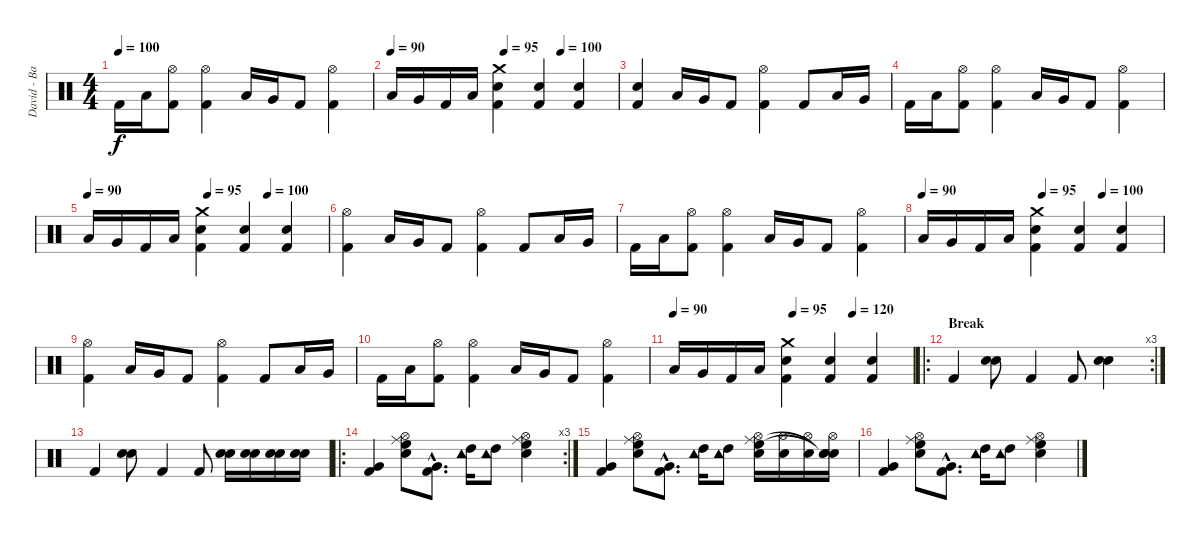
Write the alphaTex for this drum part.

\track ("David - Batterie" "David - Ba") {instrument percussion}
\staff {score}
\articulation defaults
\ts (4 4)
\tempo 100
\clef neutral
\ks c "Kick (hit) 2".16{dy f} "Low Tom (hit)".16
("Kick (hit) 2" "Hi-Hat (open)").8 ("Kick (hit) 2" "Hi-Hat (open)").4 "Low Tom (hit)".16 "Very Low Tom (hit)".16 "Kick (hit) 2".8 ("Kick (hit) 2" "Hi-Hat (open)").4 |
\tempo 90
\tempo (95 0.5)
\tempo (100 0.75)
"Low Tom (hit)".16 "Very Low Tom (hit)".16 "Kick (hit) 2".16 "Low Tom (hit)".16 ("Kick (hit) 2" "Snare (hit) 2" "Crash medium (hit)").4 ("Kick (hit) 2" "Snare (hit) 2").4 ("Kick (hit) 2" "Snare (hit) 2").4 |
("Kick (hit) 2" "Snare (hit) 2").4 "Low Tom (hit)".16 "Very Low Tom (hit)".16 "Kick (hit) 2".8 ("Kick (hit) 2" "Hi-Hat (open)").4 "Kick (hit) 2".8 "Low Tom (hit)".16 "Very Low Tom (hit)".16 |
"Kick (hit) 2".16 "Low Tom (hit)".16 ("Kick (hit) 2" "Hi-Hat (open)").8 ("Kick (hit) 2" "Hi-Hat (open)").4 "Low Tom (hit)".16 "Very Low Tom (hit)".16 "Kick (hit) 2".8 ("Kick (hit) 2" "Hi-Hat (open)").4 |
\tempo 90
\tempo (95 0.5)
\tempo (100 0.75)
"Low Tom (hit)".16 "Very Low Tom (hit)".16 "Kick (hit) 2".16 "Low Tom (hit)".16 ("Kick (hit) 2" "Snare (hit) 2" "Crash medium (hit)").4 ("Kick (hit) 2" "Snare (hit) 2").4 ("Kick (hit) 2" "Snare (hit) 2").4 |
("Kick (hit) 2" "Hi-Hat (open)").4 "Low Tom (hit)".16 "Very Low Tom (hit)".16 "Kick (hit) 2".8 ("Kick (hit) 2" "Hi-Hat (open)").4 "Kick (hit) 2".8 "Low Tom (hit)".16 "Very Low Tom (hit)".16 |
"Kick (hit) 2".16 "Low Tom (hit)".16 ("Kick (hit) 2" "Hi-Hat (open)").8 ("Kick (hit) 2" "Hi-Hat (open)").4 "Low Tom (hit)".16 "Very Low Tom (hit)".16 "Kick (hit) 2".8 ("Kick (hit) 2" "Hi-Hat (open)").4 |
\tempo 90
\tempo (95 0.5)
\tempo (100 0.75)
"Low Tom (hit)".16 "Very Low Tom (hit)".16 "Kick (hit) 2".16 "Low Tom (hit)".16 ("Kick (hit) 2" "Snare (hit) 2" "Crash medium (hit)").4 ("Kick (hit) 2" "Snare (hit) 2").4 ("Kick (hit) 2" "Snare (hit) 2").4 |
("Kick (hit) 2" "Hi-Hat (open)").4 "Low Tom (hit)".16 "Very Low Tom (hit)".16 "Kick (hit) 2".8 ("Kick (hit) 2" "Hi-Hat (open)").4 "Kick (hit) 2".8 "Low Tom (hit)".16 "Very Low Tom (hit)".16 |
"Kick (hit) 2".16 "Low Tom (hit)".16 ("Kick (hit) 2" "Hi-Hat (open)").8 ("Kick (hit) 2" "Hi-Hat (open)").4 "Low Tom (hit)".16 "Very Low Tom (hit)".16 "Kick (hit) 2".8 ("Kick (hit) 2" "Hi-Hat (open)").4 |
\tempo 90
\tempo (95 0.5)
\tempo (120 0.75)
"Low Tom (hit)".16 "Very Low Tom (hit)".16 "Kick (hit) 2".16 "Low Tom (hit)".16 ("Kick (hit) 2" "Snare (hit) 2" "Crash medium (hit)").4 ("Kick (hit) 2" "Snare (hit) 2").4 ("Kick (hit) 2" "Snare (hit) 2").4 |
\ro
\rc 3
\section ("" "Break")
"Kick (hit) 2".4 ("Snare (hit) 2" "Hand Clap (hit)").8 "Kick (hit) 2".4 "Kick (hit) 2".8 ("Snare (hit) 2" "Hand Clap (hit)").4 |
"Kick (hit) 2".4 ("Snare (hit) 2" "Hand Clap (hit)").8 "Kick (hit) 2".4 "Kick (hit) 2".8 ("Snare (hit) 2" "Hand Clap (hit)").16 ("Snare (hit) 2" "Hand Clap (hit)").16 ("Snare (hit) 2" "Hand Clap (hit)").16 ("Snare (hit) 2" "Hand Clap (hit)").16 |
\ro
\rc 3
("Kick (hit) 2" "Very Low Tom (hit)").4 ("Snare (hit) 2" "Hi-Hat (open)" "High Floor Tom (hit)" "Ride (middle)").8 ("Kick (hit) 2"{hac} "Very Low Tom (hit)"{hac}).8{d} ("High Tom (hit)" "Tambourine (hit)").16 ("High Tom (hit)" "Tambourine (hit)").8 ("Snare (hit) 2" "Hi-Hat (open)" "High Floor Tom (hit)" "Ride (middle)").4 |
("Kick (hit) 2" "Very Low Tom (hit)").4 ("Snare (hit) 2" "Hi-Hat (open)" "High Floor Tom (hit)" "Ride (middle)").8 ("Kick (hit) 2"{hac} "Very Low Tom (hit)"{hac}).8{d} ("High Tom (hit)" "Tambourine (hit)").16 ("High Tom (hit)" "Tambourine (hit)").8 ("Snare (hit) 2" "Hi-Hat (open)" "High Floor Tom (hit)" "Ride (middle)").16 ("Snare (hit) 2" "Hi-Hat (open)").16 ("Snare (hit) 2" "Hi-Hat (open)").16 ("Snare (hit) 2" "Hi-Hat (open)" "Snare (hit)"{t} "Snare (hit)"{t}).16 |
("Kick (hit) 2" "Very Low Tom (hit)").4 ("Snare (hit) 2" "Hi-Hat (open)" "High Floor Tom (hit)" "Ride (middle)").8 ("Kick (hit) 2"{hac} "Very Low Tom (hit)"{hac}).8{d} ("High Tom (hit)" "Tambourine (hit)").16 ("High Tom (hit)" "Tambourine (hit)").8 ("Snare (hit) 2" "Hi-Hat (open)" "High Floor Tom (hit)" "Ride (middle)").4
